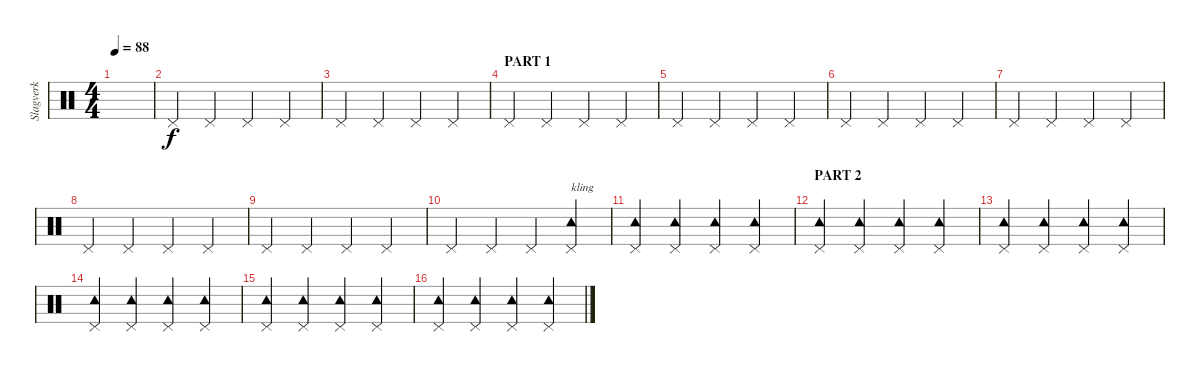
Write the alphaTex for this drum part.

\track ("Slagverk" "Slagverk") {instrument percussion}
\staff {score}
\articulation defaults
\ts (4 4)
\tempo 88
\clef neutral
\ks c
|
"Pedal Hi-Hat (hit)".4 "Pedal Hi-Hat (hit)".4 "Pedal Hi-Hat (hit)".4 "Pedal Hi-Hat (hit)".4 |
"Pedal Hi-Hat (hit)".4 "Pedal Hi-Hat (hit)".4 "Pedal Hi-Hat (hit)".4 "Pedal Hi-Hat (hit)".4 |
\section ("" "PART 1")
"Pedal Hi-Hat (hit)".4 "Pedal Hi-Hat (hit)".4 "Pedal Hi-Hat (hit)".4 "Pedal Hi-Hat (hit)".4 |
"Pedal Hi-Hat (hit)".4 "Pedal Hi-Hat (hit)".4 "Pedal Hi-Hat (hit)".4 "Pedal Hi-Hat (hit)".4 |
"Pedal Hi-Hat (hit)".4 "Pedal Hi-Hat (hit)".4 "Pedal Hi-Hat (hit)".4 "Pedal Hi-Hat (hit)".4 |
"Pedal Hi-Hat (hit)".4 "Pedal Hi-Hat (hit)".4 "Pedal Hi-Hat (hit)".4 "Pedal Hi-Hat (hit)".4 |
"Pedal Hi-Hat (hit)".4 "Pedal Hi-Hat (hit)".4 "Pedal Hi-Hat (hit)".4 "Pedal Hi-Hat (hit)".4 |
"Pedal Hi-Hat (hit)".4 "Pedal Hi-Hat (hit)".4 "Pedal Hi-Hat (hit)".4 "Pedal Hi-Hat (hit)".4 |
"Pedal Hi-Hat (hit)".4 "Pedal Hi-Hat (hit)".4 "Pedal Hi-Hat (hit)".4 ("Pedal Hi-Hat (hit)" "Tambourine (hit)").4{txt "kling"} |
("Pedal Hi-Hat (hit)" "Tambourine (hit)").4 ("Pedal Hi-Hat (hit)" "Tambourine (hit)").4 ("Pedal Hi-Hat (hit)" "Tambourine (hit)").4 ("Pedal Hi-Hat (hit)" "Tambourine (hit)").4 |
\section ("" "PART 2")
("Pedal Hi-Hat (hit)" "Tambourine (hit)").4 ("Pedal Hi-Hat (hit)" "Tambourine (hit)").4 ("Pedal Hi-Hat (hit)" "Tambourine (hit)").4 ("Pedal Hi-Hat (hit)" "Tambourine (hit)").4 |
("Pedal Hi-Hat (hit)" "Tambourine (hit)").4 ("Pedal Hi-Hat (hit)" "Tambourine (hit)").4 ("Pedal Hi-Hat (hit)" "Tambourine (hit)").4 ("Pedal Hi-Hat (hit)" "Tambourine (hit)").4 |
("Pedal Hi-Hat (hit)" "Tambourine (hit)").4 ("Pedal Hi-Hat (hit)" "Tambourine (hit)").4 ("Pedal Hi-Hat (hit)" "Tambourine (hit)").4 ("Pedal Hi-Hat (hit)" "Tambourine (hit)").4 |
("Pedal Hi-Hat (hit)" "Tambourine (hit)").4 ("Pedal Hi-Hat (hit)" "Tambourine (hit)").4 ("Pedal Hi-Hat (hit)" "Tambourine (hit)").4 ("Pedal Hi-Hat (hit)" "Tambourine (hit)").4 |
("Pedal Hi-Hat (hit)" "Tambourine (hit)").4 ("Pedal Hi-Hat (hit)" "Tambourine (hit)").4 ("Pedal Hi-Hat (hit)" "Tambourine (hit)").4 ("Pedal Hi-Hat (hit)" "Tambourine (hit)").4
